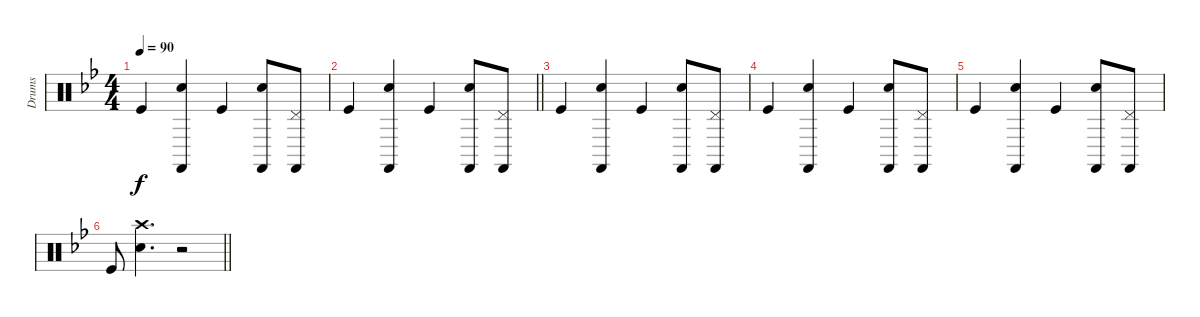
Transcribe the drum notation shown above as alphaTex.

\track ("Drums" "Drums") {instrument percussion}
\staff {score}
\articulation defaults
\ts (4 4)
\tempo 90
\clef neutral
\ks bb "Kick (hit)".4{dy f}
("Electric Snare (hit)" "Castanets (hit)").4 "Kick (hit)".4 ("Electric Snare (hit)" "Castanets (hit)").8 ("Castanets (hit)" "Pedal Hi-Hat (hit)").8 |
\barLineRight lightlight "Kick (hit)".4
("Electric Snare (hit)" "Castanets (hit)").4 "Kick (hit)".4 ("Electric Snare (hit)" "Castanets (hit)").8 ("Castanets (hit)" "Pedal Hi-Hat (hit)").8 |
"Kick (hit)".4 ("Electric Snare (hit)" "Castanets (hit)").4 "Kick (hit)".4 ("Electric Snare (hit)" "Castanets (hit)").8 ("Castanets (hit)" "Pedal Hi-Hat (hit)").8 |
"Kick (hit)".4 ("Electric Snare (hit)" "Castanets (hit)").4 "Kick (hit)".4 ("Electric Snare (hit)" "Castanets (hit)").8 ("Castanets (hit)" "Pedal Hi-Hat (hit)").8 |
"Kick (hit)".4 ("Electric Snare (hit)" "Castanets (hit)").4 "Kick (hit)".4 ("Electric Snare (hit)" "Castanets (hit)").8 ("Castanets (hit)" "Pedal Hi-Hat (hit)").8 |
\barLineRight lightlight "Kick (hit)".8
("Electric Snare (hit)" "Crash high (hit)").4{d} r.2
